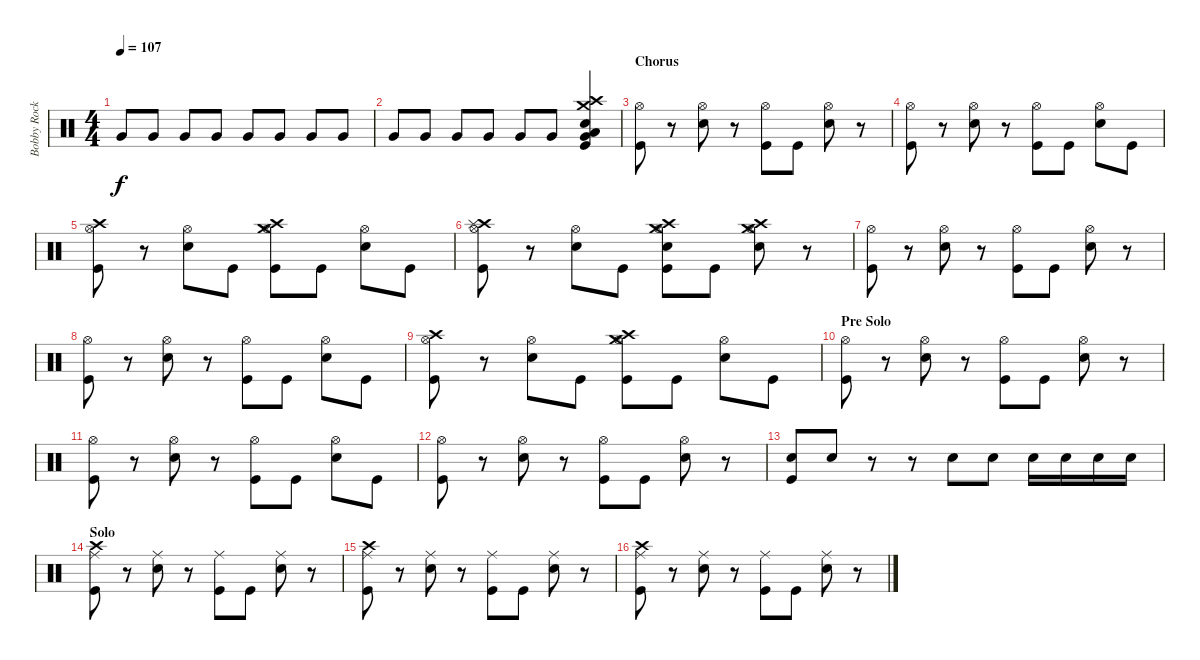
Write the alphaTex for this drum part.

\track ("Bobby Rock - drums" "Bobby Rock") {instrument percussion}
\staff {score}
\articulation defaults
\ts (4 4)
\tempo 107
\clef neutral
\ks c "Very Low Tom (hit)".8{dy f volume 13} "Very Low Tom (hit)".8 "Very Low Tom (hit)".8 "Very Low Tom (hit)".8 "Very Low Tom (hit)".8 "Very Low Tom (hit)".8 "Very Low Tom (hit)".8 "Very Low Tom (hit)".8
|
"Very Low Tom (hit)".8 "Very Low Tom (hit)".8 "Very Low Tom (hit)".8 "Very Low Tom (hit)".8 "Very Low Tom (hit)".8 "Very Low Tom (hit)".8 ("Crash high (hit)" "Crash medium (hit)" "Snare (hit) 2" "Very Low Tom (hit)" "Low Floor Tom (hit)" "Kick (hit)").4 |
\section ("" "Chorus")
("Hi-Hat (open)" "Kick (hit)").8 r.8 ("Hi-Hat (open)" "Snare (hit) 2").8 r.8 ("Hi-Hat (open)" "Kick (hit)").8 "Kick (hit)".8 ("Hi-Hat (open)" "Snare (hit) 2").8 r.8 |
("Hi-Hat (open)" "Kick (hit)").8 r.8 ("Hi-Hat (open)" "Snare (hit) 2").8 r.8 ("Hi-Hat (open)" "Kick (hit)").8 "Kick (hit)".8 ("Hi-Hat (open)" "Snare (hit) 2").8 "Kick (hit)".8 |
("Hi-Hat (open)" "Crash high (hit)" "Kick (hit)").8 r.8 ("Hi-Hat (open)" "Snare (hit) 2").8 "Kick (hit)".8 ("Hi-Hat (open)" "Crash medium (hit)" "Crash high (hit)" "Kick (hit)").8 "Kick (hit)".8 ("Hi-Hat (open)" "Snare (hit) 2").8 "Kick (hit)".8 |
("Hi-Hat (open)" "Crash high (hit)" "Splash (hit)" "Kick (hit)").8 r.8 ("Hi-Hat (open)" "Snare (hit) 2").8 "Kick (hit)".8 ("Hi-Hat (open)" "Crash medium (hit)" "Crash high (hit)" "Snare (hit) 2" "Kick (hit)").8 "Kick (hit)".8 ("Hi-Hat (open)" "Crash high (hit)" "Crash medium (hit)" "Snare (hit) 2").8 r.8 |
("Hi-Hat (open)" "Kick (hit)").8 r.8 ("Hi-Hat (open)" "Snare (hit) 2").8 r.8 ("Hi-Hat (open)" "Kick (hit)").8 "Kick (hit)".8 ("Hi-Hat (open)" "Snare (hit) 2").8 r.8 |
("Hi-Hat (open)" "Kick (hit)").8 r.8 ("Hi-Hat (open)" "Snare (hit) 2").8 r.8 ("Hi-Hat (open)" "Kick (hit)").8 "Kick (hit)".8 ("Hi-Hat (open)" "Snare (hit) 2").8 "Kick (hit)".8 |
("Hi-Hat (open)" "Crash high (hit)" "Kick (hit)").8 r.8 ("Hi-Hat (open)" "Snare (hit) 2").8 "Kick (hit)".8 ("Hi-Hat (open)" "Crash medium (hit)" "Crash high (hit)" "Kick (hit)").8 "Kick (hit)".8 ("Hi-Hat (open)" "Snare (hit) 2").8 "Kick (hit)".8 |
\section ("" "Pre Solo")
("Hi-Hat (open)" "Kick (hit)").8 r.8 ("Hi-Hat (open)" "Snare (hit) 2").8 r.8 ("Hi-Hat (open)" "Kick (hit)").8 "Kick (hit)".8 ("Hi-Hat (open)" "Snare (hit) 2").8 r.8 |
("Hi-Hat (open)" "Kick (hit)").8 r.8 ("Hi-Hat (open)" "Snare (hit) 2").8 r.8 ("Hi-Hat (open)" "Kick (hit)").8 "Kick (hit)".8 ("Hi-Hat (open)" "Snare (hit) 2").8 "Kick (hit)".8 |
("Hi-Hat (open)" "Kick (hit)").8 r.8 ("Hi-Hat (open)" "Snare (hit) 2").8 r.8 ("Hi-Hat (open)" "Kick (hit)").8 "Kick (hit)".8 ("Hi-Hat (open)" "Snare (hit) 2").8 r.8 |
("Snare (hit) 2" "Kick (hit)").8 "Snare (hit) 2".8 r.8 r.8 "Snare (hit) 2".8 "Snare (hit) 2".8 "Snare (hit) 2".16 "Snare (hit) 2".16 "Snare (hit) 2".16 "Snare (hit) 2".16 |
\section ("" "Solo")
("Ride (middle)" "Crash high (hit)" "Kick (hit)").8 r.8 ("Ride (middle)" "Snare (hit) 2").8 r.8 ("Ride (middle)" "Kick (hit)").8 "Kick (hit)".8 ("Ride (middle)" "Snare (hit) 2").8 r.8 |
("Ride (middle)" "Crash high (hit)" "Kick (hit)").8 r.8 ("Ride (middle)" "Snare (hit) 2").8 r.8 ("Ride (middle)" "Kick (hit)").8 "Kick (hit)".8 ("Ride (middle)" "Snare (hit) 2").8 r.8 |
("Ride (middle)" "Crash high (hit)" "Kick (hit)").8 r.8 ("Ride (middle)" "Snare (hit) 2").8 r.8 ("Ride (middle)" "Kick (hit)").8 "Kick (hit)".8 ("Ride (middle)" "Snare (hit) 2").8 r.8
